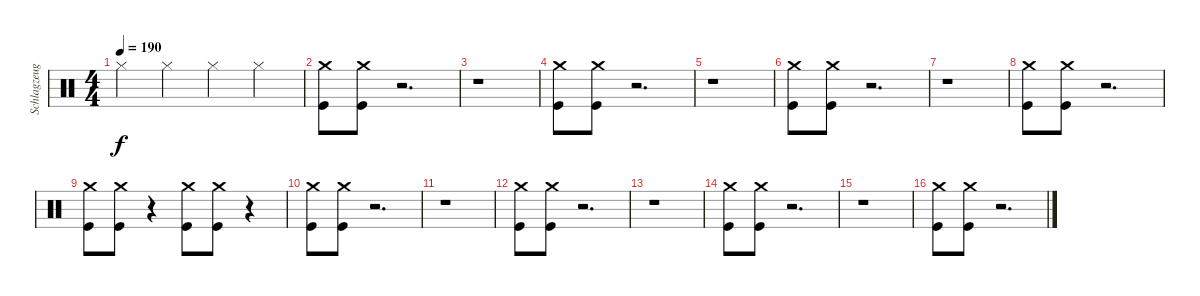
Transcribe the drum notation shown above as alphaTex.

\track ("Schlagzeug" "Schlagzeug") {instrument percussion}
\staff {score}
\articulation defaults
\ts (4 4)
\tempo 190
\clef neutral
\ks c "Hi-Hat (closed)".4{dy f} "Hi-Hat (closed)".4 "Hi-Hat (closed)".4 "Hi-Hat (closed)".4
|
("Crash medium (hit)" "Kick (hit)").8 ("Crash medium (hit)" "Kick (hit)").8 r.2{d} |
r.1 |
("Crash medium (hit)" "Kick (hit)").8 ("Crash medium (hit)" "Kick (hit)").8 r.2{d} |
r.1 |
("Crash medium (hit)" "Kick (hit)").8 ("Crash medium (hit)" "Kick (hit)").8 r.2{d} |
r.1 |
("Crash medium (hit)" "Kick (hit)").8 ("Crash medium (hit)" "Kick (hit)").8 r.2{d} |
("Crash medium (hit)" "Kick (hit)").8 ("Crash medium (hit)" "Kick (hit)").8 r.4 ("Crash medium (hit)" "Kick (hit)").8 ("Crash medium (hit)" "Kick (hit)").8 r.4 |
("Crash medium (hit)" "Kick (hit)").8 ("Crash medium (hit)" "Kick (hit)").8 r.2{d} |
r.1 |
("Crash medium (hit)" "Kick (hit)").8 ("Crash medium (hit)" "Kick (hit)").8 r.2{d} |
r.1 |
("Crash medium (hit)" "Kick (hit)").8 ("Crash medium (hit)" "Kick (hit)").8 r.2{d} |
r.1 |
("Crash medium (hit)" "Kick (hit)").8 ("Crash medium (hit)" "Kick (hit)").8 r.2{d}
